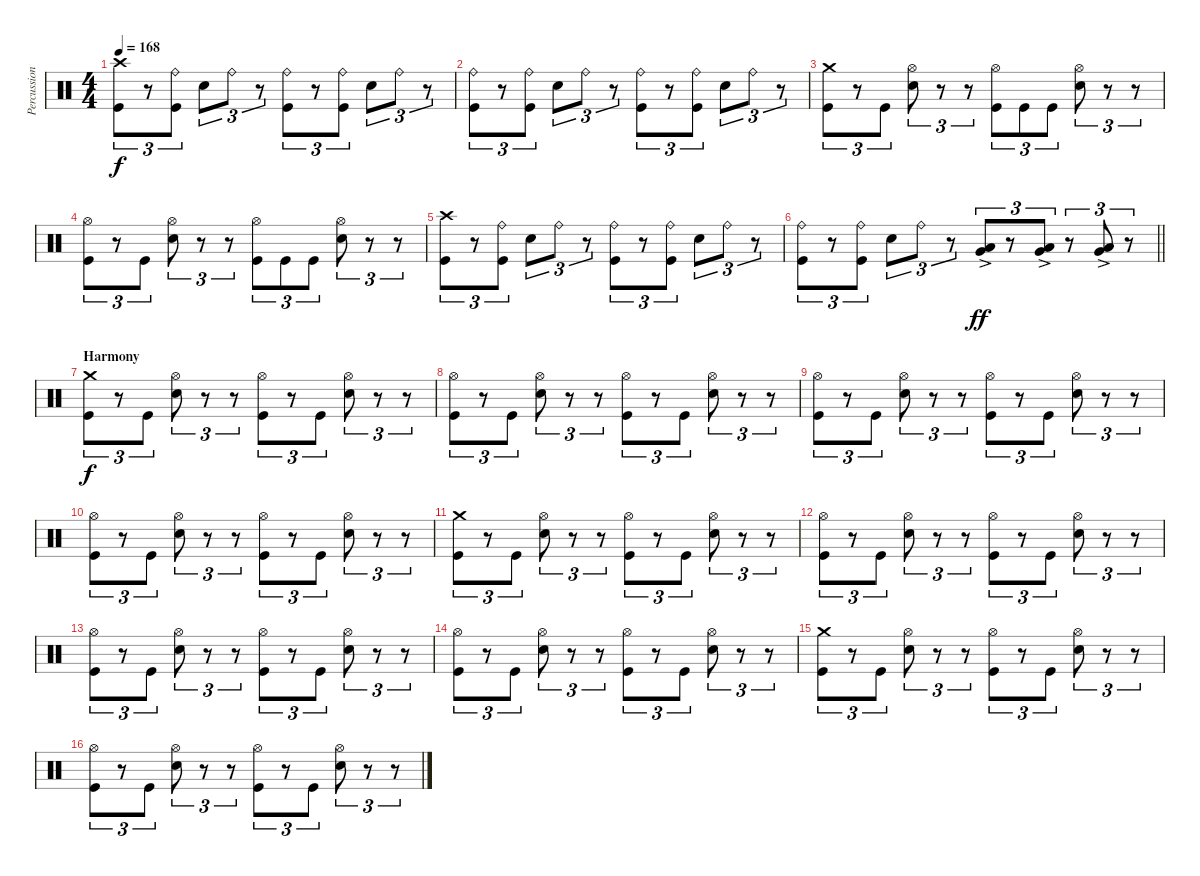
\track ("Percussion" "Percussion") {instrument percussion}
\staff {score}
\articulation defaults
\ts (4 4)
\tempo 168
\clef neutral
\ks c
("Crash high (hit)" "Kick (hit)").8{tu (3 2) dy f} r.8{tu (3 2)} ("Ride (bell)" "Kick (hit)").8{tu (3 2)} "Electric Snare (hit)".8{tu (3 2)} "Ride (bell)".8{tu (3 2)} r.8{tu (3 2)} ("Ride (bell)" "Kick (hit)").8{tu (3 2)} r.8{tu (3 2)} ("Ride (bell)" "Kick (hit)").8{tu (3 2)} "Electric Snare (hit)".8{tu (3 2)} "Ride (bell)".8{tu (3 2)} r.8{tu (3 2)} |
("Ride (bell)" "Kick (hit)").8{tu (3 2)} r.8{tu (3 2)} ("Ride (bell)" "Kick (hit)").8{tu (3 2)} "Electric Snare (hit)".8{tu (3 2)} "Ride (bell)".8{tu (3 2)} r.8{tu (3 2)} ("Ride (bell)" "Kick (hit)").8{tu (3 2)} r.8{tu (3 2)} ("Ride (bell)" "Kick (hit)").8{tu (3 2)} "Electric Snare (hit)".8{tu (3 2)} "Ride (bell)".8{tu (3 2)} r.8{tu (3 2)} |
("Crash medium (hit)" "Kick (hit)").8{tu (3 2)} r.8{tu (3 2)} "Kick (hit)".8{tu (3 2)} ("Hi-Hat (open)" "Electric Snare (hit)").8{tu (3 2)} r.8{tu (3 2)} r.8{tu (3 2)} ("Hi-Hat (open)" "Kick (hit)").8{tu (3 2)} "Kick (hit)".8{tu (3 2)} "Kick (hit)".8{tu (3 2)} ("Hi-Hat (open)" "Electric Snare (hit)").8{tu (3 2)} r.8{tu (3 2)} r.8{tu (3 2)} |
("Hi-Hat (open)" "Kick (hit)").8{tu (3 2)} r.8{tu (3 2)} "Kick (hit)".8{tu (3 2)} ("Hi-Hat (open)" "Electric Snare (hit)").8{tu (3 2)} r.8{tu (3 2)} r.8{tu (3 2)} ("Hi-Hat (open)" "Kick (hit)").8{tu (3 2)} "Kick (hit)".8{tu (3 2)} "Kick (hit)".8{tu (3 2)} ("Hi-Hat (open)" "Electric Snare (hit)").8{tu (3 2)} r.8{tu (3 2)} r.8{tu (3 2)} |
("Crash high (hit)" "Kick (hit)").8{tu (3 2)} r.8{tu (3 2)} ("Ride (bell)" "Kick (hit)").8{tu (3 2)} "Electric Snare (hit)".8{tu (3 2)} "Ride (bell)".8{tu (3 2)} r.8{tu (3 2)} ("Ride (bell)" "Kick (hit)").8{tu (3 2)} r.8{tu (3 2)} ("Ride (bell)" "Kick (hit)").8{tu (3 2)} "Electric Snare (hit)".8{tu (3 2)} "Ride (bell)".8{tu (3 2)} r.8{tu (3 2)} |
\barLineRight lightlight
("Ride (bell)" "Kick (hit)").8{tu (3 2)} r.8{tu (3 2)} ("Ride (bell)" "Kick (hit)").8{tu (3 2)} "Electric Snare (hit)".8{tu (3 2)} "Ride (bell)".8{tu (3 2)} r.8{tu (3 2)} ("Very Low Tom (hit)"{ac} "Low Floor Tom (hit)"{ac}).8{tu (3 2) dy ff} r.8{tu (3 2)} ("Very Low Tom (hit)"{ac} "Low Floor Tom (hit)"{ac}).8{tu (3 2)} r.8{tu (3 2)} ("Very Low Tom (hit)"{ac} "Low Floor Tom (hit)"{ac}).8{tu (3 2)} r.8{tu (3 2)} |
\section ("" "Harmony")
("Crash medium (hit)" "Kick (hit)").8{tu (3 2) dy f} r.8{tu (3 2)} "Kick (hit)".8{tu (3 2)} ("Hi-Hat (open)" "Electric Snare (hit)").8{tu (3 2)} r.8{tu (3 2)} r.8{tu (3 2)} ("Hi-Hat (open)" "Kick (hit)").8{tu (3 2)} r.8{tu (3 2)} "Kick (hit)".8{tu (3 2)} ("Hi-Hat (open)" "Electric Snare (hit)").8{tu (3 2)} r.8{tu (3 2)} r.8{tu (3 2)} |
("Hi-Hat (open)" "Kick (hit)").8{tu (3 2)} r.8{tu (3 2)} "Kick (hit)".8{tu (3 2)} ("Hi-Hat (open)" "Electric Snare (hit)").8{tu (3 2)} r.8{tu (3 2)} r.8{tu (3 2)} ("Hi-Hat (open)" "Kick (hit)").8{tu (3 2)} r.8{tu (3 2)} "Kick (hit)".8{tu (3 2)} ("Hi-Hat (open)" "Electric Snare (hit)").8{tu (3 2)} r.8{tu (3 2)} r.8{tu (3 2)} |
("Hi-Hat (open)" "Kick (hit)").8{tu (3 2)} r.8{tu (3 2)} "Kick (hit)".8{tu (3 2)} ("Hi-Hat (open)" "Electric Snare (hit)").8{tu (3 2)} r.8{tu (3 2)} r.8{tu (3 2)} ("Hi-Hat (open)" "Kick (hit)").8{tu (3 2)} r.8{tu (3 2)} "Kick (hit)".8{tu (3 2)} ("Hi-Hat (open)" "Electric Snare (hit)").8{tu (3 2)} r.8{tu (3 2)} r.8{tu (3 2)} |
("Hi-Hat (open)" "Kick (hit)").8{tu (3 2)} r.8{tu (3 2)} "Kick (hit)".8{tu (3 2)} ("Hi-Hat (open)" "Electric Snare (hit)").8{tu (3 2)} r.8{tu (3 2)} r.8{tu (3 2)} ("Hi-Hat (open)" "Kick (hit)").8{tu (3 2)} r.8{tu (3 2)} "Kick (hit)".8{tu (3 2)} ("Hi-Hat (open)" "Electric Snare (hit)").8{tu (3 2)} r.8{tu (3 2)} r.8{tu (3 2)} |
("Crash medium (hit)" "Kick (hit)").8{tu (3 2)} r.8{tu (3 2)} "Kick (hit)".8{tu (3 2)} ("Hi-Hat (open)" "Electric Snare (hit)").8{tu (3 2)} r.8{tu (3 2)} r.8{tu (3 2)} ("Hi-Hat (open)" "Kick (hit)").8{tu (3 2)} r.8{tu (3 2)} "Kick (hit)".8{tu (3 2)} ("Hi-Hat (open)" "Electric Snare (hit)").8{tu (3 2)} r.8{tu (3 2)} r.8{tu (3 2)} |
("Hi-Hat (open)" "Kick (hit)").8{tu (3 2)} r.8{tu (3 2)} "Kick (hit)".8{tu (3 2)} ("Hi-Hat (open)" "Electric Snare (hit)").8{tu (3 2)} r.8{tu (3 2)} r.8{tu (3 2)} ("Hi-Hat (open)" "Kick (hit)").8{tu (3 2)} r.8{tu (3 2)} "Kick (hit)".8{tu (3 2)} ("Hi-Hat (open)" "Electric Snare (hit)").8{tu (3 2)} r.8{tu (3 2)} r.8{tu (3 2)} |
("Hi-Hat (open)" "Kick (hit)").8{tu (3 2)} r.8{tu (3 2)} "Kick (hit)".8{tu (3 2)} ("Hi-Hat (open)" "Electric Snare (hit)").8{tu (3 2)} r.8{tu (3 2)} r.8{tu (3 2)} ("Hi-Hat (open)" "Kick (hit)").8{tu (3 2)} r.8{tu (3 2)} "Kick (hit)".8{tu (3 2)} ("Hi-Hat (open)" "Electric Snare (hit)").8{tu (3 2)} r.8{tu (3 2)} r.8{tu (3 2)} |
("Hi-Hat (open)" "Kick (hit)").8{tu (3 2)} r.8{tu (3 2)} "Kick (hit)".8{tu (3 2)} ("Hi-Hat (open)" "Electric Snare (hit)").8{tu (3 2)} r.8{tu (3 2)} r.8{tu (3 2)} ("Hi-Hat (open)" "Kick (hit)").8{tu (3 2)} r.8{tu (3 2)} "Kick (hit)".8{tu (3 2)} ("Hi-Hat (open)" "Electric Snare (hit)").8{tu (3 2)} r.8{tu (3 2)} r.8{tu (3 2)} |
("Crash medium (hit)" "Kick (hit)").8{tu (3 2)} r.8{tu (3 2)} "Kick (hit)".8{tu (3 2)} ("Hi-Hat (open)" "Electric Snare (hit)").8{tu (3 2)} r.8{tu (3 2)} r.8{tu (3 2)} ("Hi-Hat (open)" "Kick (hit)").8{tu (3 2)} r.8{tu (3 2)} "Kick (hit)".8{tu (3 2)} ("Hi-Hat (open)" "Electric Snare (hit)").8{tu (3 2)} r.8{tu (3 2)} r.8{tu (3 2)} |
("Hi-Hat (open)" "Kick (hit)").8{tu (3 2)} r.8{tu (3 2)} "Kick (hit)".8{tu (3 2)} ("Hi-Hat (open)" "Electric Snare (hit)").8{tu (3 2)} r.8{tu (3 2)} r.8{tu (3 2)} ("Hi-Hat (open)" "Kick (hit)").8{tu (3 2)} r.8{tu (3 2)} "Kick (hit)".8{tu (3 2)} ("Hi-Hat (open)" "Electric Snare (hit)").8{tu (3 2)} r.8{tu (3 2)} r.8{tu (3 2)}
